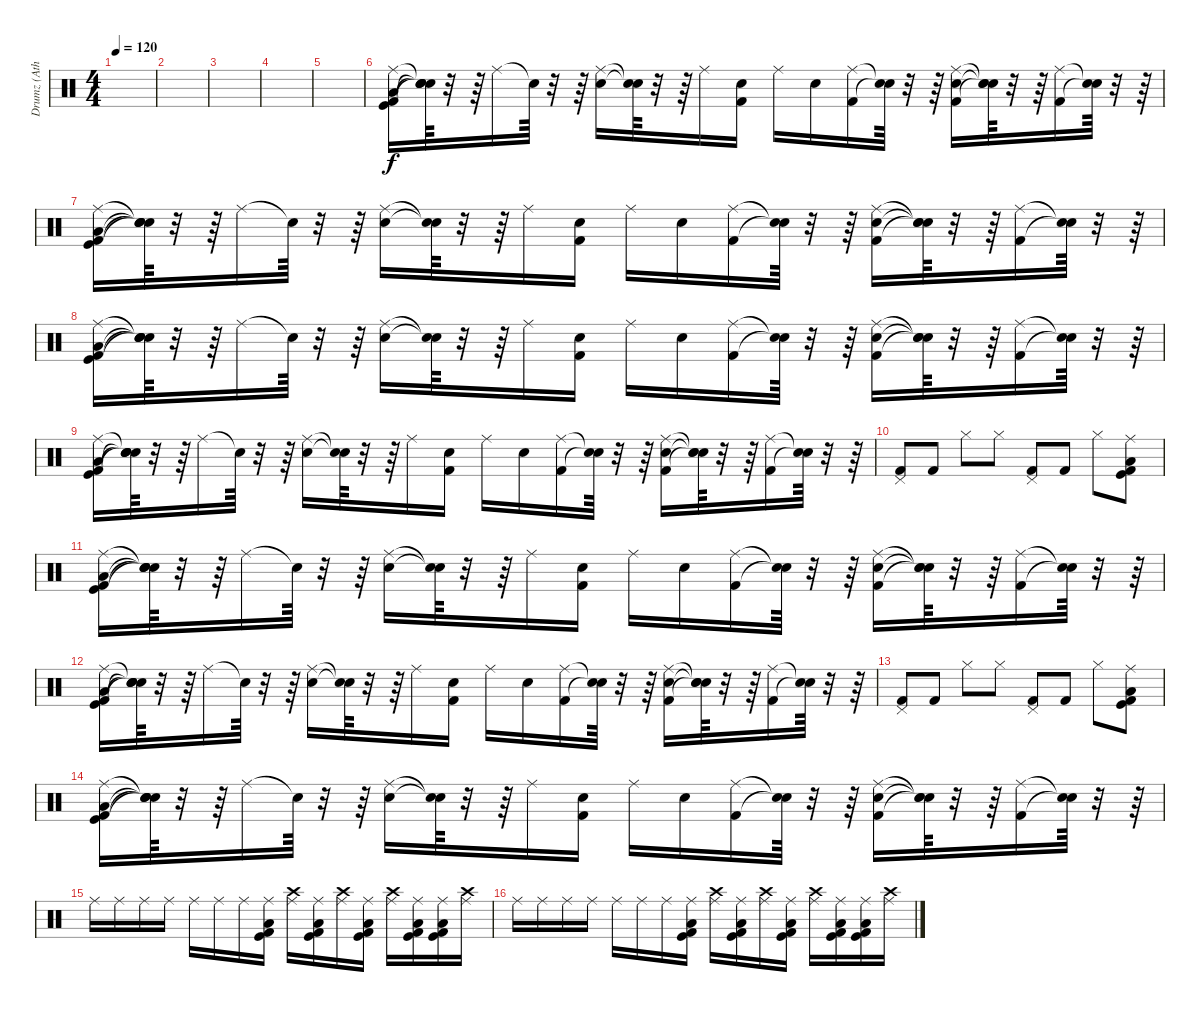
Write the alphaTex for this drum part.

\track ("Drumz (Athlon 800mhk)" "Drumz (Ath") {instrument percussion}
\staff {score}
\articulation defaults
\ts (4 4)
\tempo 120
\clef neutral
\ks c
|
|
|
|
|
("Kick (hit) 2" "Low Tom (hit)" "Kick (hit)" "Ride (middle)").16 ("Snare (hit)"{t} "Snare (hit)"{t} "Snare (hit)"{t} "Snare (hit)"{t}).64 r.32 r.64 "Ride (middle)".16 "Snare (hit)"{t}.64 r.32 r.64 ("Snare (hit) 2" "Ride (middle)").16 ("Snare (hit)"{t} "Snare (hit)"{t}).64 r.32 r.64 "Ride (middle)".16 ("Kick (hit) 2" "Snare (hit) 2").16 "Ride (middle)".16 "Snare (hit) 2".16 ("Kick (hit) 2" "Ride (middle)").16 ("Snare (hit)"{t} "Snare (hit)"{t}).64 r.32 r.64 ("Ride (middle)" "Snare (hit) 2" "Kick (hit) 2").16 ("Snare (hit)"{t} "Snare (hit)"{t} "Snare (hit)"{t}).64 r.32 r.64 ("Ride (middle)" "Kick (hit) 2").16 ("Snare (hit)"{t} "Snare (hit)"{t}).64 r.32 r.64 |
("Kick (hit) 2" "Low Tom (hit)" "Kick (hit)" "Ride (middle)").16 ("Snare (hit)"{t} "Snare (hit)"{t} "Snare (hit)"{t} "Snare (hit)"{t}).64 r.32 r.64 "Ride (middle)".16 "Snare (hit)"{t}.64 r.32 r.64 ("Snare (hit) 2" "Ride (middle)").16 ("Snare (hit)"{t} "Snare (hit)"{t}).64 r.32 r.64 "Ride (middle)".16 ("Kick (hit) 2" "Snare (hit) 2").16 "Ride (middle)".16 "Snare (hit) 2".16 ("Kick (hit) 2" "Ride (middle)").16 ("Snare (hit)"{t} "Snare (hit)"{t}).64 r.32 r.64 ("Ride (middle)" "Snare (hit) 2" "Kick (hit) 2").16 ("Snare (hit)"{t} "Snare (hit)"{t} "Snare (hit)"{t}).64 r.32 r.64 ("Ride (middle)" "Kick (hit) 2").16 ("Snare (hit)"{t} "Snare (hit)"{t}).64 r.32 r.64 |
("Kick (hit) 2" "Low Tom (hit)" "Kick (hit)" "Ride (middle)").16 ("Snare (hit)"{t} "Snare (hit)"{t} "Snare (hit)"{t} "Snare (hit)"{t}).64 r.32 r.64 "Ride (middle)".16 "Snare (hit)"{t}.64 r.32 r.64 ("Snare (hit) 2" "Ride (middle)").16 ("Snare (hit)"{t} "Snare (hit)"{t}).64 r.32 r.64 "Ride (middle)".16 ("Kick (hit) 2" "Snare (hit) 2").16 "Ride (middle)".16 "Snare (hit) 2".16 ("Kick (hit) 2" "Ride (middle)").16 ("Snare (hit)"{t} "Snare (hit)"{t}).64 r.32 r.64 ("Ride (middle)" "Snare (hit) 2" "Kick (hit) 2").16 ("Snare (hit)"{t} "Snare (hit)"{t} "Snare (hit)"{t}).64 r.32 r.64 ("Ride (middle)" "Kick (hit) 2").16 ("Snare (hit)"{t} "Snare (hit)"{t}).64 r.32 r.64 |
("Kick (hit) 2" "Low Tom (hit)" "Kick (hit)" "Ride (middle)").16 ("Snare (hit)"{t} "Snare (hit)"{t} "Snare (hit)"{t} "Snare (hit)"{t}).64 r.32 r.64 "Ride (middle)".16 "Snare (hit)"{t}.64 r.32 r.64 ("Snare (hit) 2" "Ride (middle)").16 ("Snare (hit)"{t} "Snare (hit)"{t}).64 r.32 r.64 "Ride (middle)".16 ("Kick (hit) 2" "Snare (hit) 2").16 "Ride (middle)".16 "Snare (hit) 2".16 ("Kick (hit) 2" "Ride (middle)").16 ("Snare (hit)"{t} "Snare (hit)"{t}).64 r.32 r.64 ("Ride (middle)" "Snare (hit) 2" "Kick (hit) 2").16 ("Snare (hit)"{t} "Snare (hit)"{t} "Snare (hit)"{t}).64 r.32 r.64 ("Ride (middle)" "Kick (hit) 2").16 ("Snare (hit)"{t} "Snare (hit)"{t}).64 r.32 r.64 |
("Pedal Hi-Hat (hit)" "Kick (hit) 2").8 "Kick (hit) 2".8 "Hi-Hat (closed)".8 "Hi-Hat (closed)".8 ("Pedal Hi-Hat (hit)" "Kick (hit) 2").8 "Kick (hit) 2".8 "Hi-Hat (closed)".8 ("Ride (middle)" "Low Tom (hit)" "Kick (hit)" "Kick (hit) 2").8 |
("Kick (hit) 2" "Low Tom (hit)" "Kick (hit)" "Ride (middle)").16 ("Snare (hit)"{t} "Snare (hit)"{t} "Snare (hit)"{t} "Snare (hit)"{t}).64 r.32 r.64 "Ride (middle)".16 "Snare (hit)"{t}.64 r.32 r.64 ("Snare (hit) 2" "Ride (middle)").16 ("Snare (hit)"{t} "Snare (hit)"{t}).64 r.32 r.64 "Ride (middle)".16 ("Kick (hit) 2" "Snare (hit) 2").16 "Ride (middle)".16 "Snare (hit) 2".16 ("Kick (hit) 2" "Ride (middle)").16 ("Snare (hit)"{t} "Snare (hit)"{t}).64 r.32 r.64 ("Ride (middle)" "Snare (hit) 2" "Kick (hit) 2").16 ("Snare (hit)"{t} "Snare (hit)"{t} "Snare (hit)"{t}).64 r.32 r.64 ("Ride (middle)" "Kick (hit) 2").16 ("Snare (hit)"{t} "Snare (hit)"{t}).64 r.32 r.64 |
("Kick (hit) 2" "Low Tom (hit)" "Kick (hit)" "Ride (middle)").16 ("Snare (hit)"{t} "Snare (hit)"{t} "Snare (hit)"{t} "Snare (hit)"{t}).64 r.32 r.64 "Ride (middle)".16 "Snare (hit)"{t}.64 r.32 r.64 ("Snare (hit) 2" "Ride (middle)").16 ("Snare (hit)"{t} "Snare (hit)"{t}).64 r.32 r.64 "Ride (middle)".16 ("Kick (hit) 2" "Snare (hit) 2").16 "Ride (middle)".16 "Snare (hit) 2".16 ("Kick (hit) 2" "Ride (middle)").16 ("Snare (hit)"{t} "Snare (hit)"{t}).64 r.32 r.64 ("Ride (middle)" "Snare (hit) 2" "Kick (hit) 2").16 ("Snare (hit)"{t} "Snare (hit)"{t} "Snare (hit)"{t}).64 r.32 r.64 ("Ride (middle)" "Kick (hit) 2").16 ("Snare (hit)"{t} "Snare (hit)"{t}).64 r.32 r.64 |
("Pedal Hi-Hat (hit)" "Kick (hit) 2").8 "Kick (hit) 2".8 "Hi-Hat (closed)".8 "Hi-Hat (closed)".8 ("Pedal Hi-Hat (hit)" "Kick (hit) 2").8 "Kick (hit) 2".8 "Hi-Hat (closed)".8 ("Ride (middle)" "Low Tom (hit)" "Kick (hit)" "Kick (hit) 2").8 |
("Kick (hit) 2" "Low Tom (hit)" "Kick (hit)" "Ride (middle)").16 ("Snare (hit)"{t} "Snare (hit)"{t} "Snare (hit)"{t} "Snare (hit)"{t}).64 r.32 r.64 "Ride (middle)".16 "Snare (hit)"{t}.64 r.32 r.64 ("Snare (hit) 2" "Ride (middle)").16 ("Snare (hit)"{t} "Snare (hit)"{t}).64 r.32 r.64 "Ride (middle)".16 ("Kick (hit) 2" "Snare (hit) 2").16 "Ride (middle)".16 "Snare (hit) 2".16 ("Kick (hit) 2" "Ride (middle)").16 ("Snare (hit)"{t} "Snare (hit)"{t}).64 r.32 r.64 ("Ride (middle)" "Snare (hit) 2" "Kick (hit) 2").16 ("Snare (hit)"{t} "Snare (hit)"{t} "Snare (hit)"{t}).64 r.32 r.64 ("Ride (middle)" "Kick (hit) 2").16 ("Snare (hit)"{t} "Snare (hit)"{t}).64 r.32 r.64 |
"Ride (middle)".16 "Ride (middle)".16 "Ride (middle)".16 "Ride (middle)".16 "Ride (middle)".16 "Ride (middle)".16 "Ride (middle)".16 ("Ride (middle)" "Low Tom (hit)" "Kick (hit)" "Kick (hit) 2").16 ("Ride (middle)" "Crash high (hit)").16 ("Ride (middle)" "Low Tom (hit)" "Kick (hit)" "Kick (hit) 2").16 ("Ride (middle)" "Crash high (hit)").16 ("Ride (middle)" "Low Tom (hit)" "Kick (hit)" "Kick (hit) 2").16 ("Ride (middle)" "Crash high (hit)").16 ("Ride (middle)" "Low Tom (hit)" "Kick (hit)" "Kick (hit) 2").16 ("Ride (middle)" "Low Tom (hit)" "Kick (hit)" "Kick (hit) 2").16 ("Ride (middle)" "Crash high (hit)").16 |
"Ride (middle)".16 "Ride (middle)".16 "Ride (middle)".16 "Ride (middle)".16 "Ride (middle)".16 "Ride (middle)".16 "Ride (middle)".16 ("Ride (middle)" "Low Tom (hit)" "Kick (hit)" "Kick (hit) 2").16 ("Ride (middle)" "Crash high (hit)").16 ("Ride (middle)" "Low Tom (hit)" "Kick (hit)" "Kick (hit) 2").16 ("Ride (middle)" "Crash high (hit)").16 ("Ride (middle)" "Low Tom (hit)" "Kick (hit)" "Kick (hit) 2").16 ("Ride (middle)" "Crash high (hit)").16 ("Ride (middle)" "Low Tom (hit)" "Kick (hit)" "Kick (hit) 2").16 ("Ride (middle)" "Low Tom (hit)" "Kick (hit)" "Kick (hit) 2").16 ("Ride (middle)" "Crash high (hit)").16
